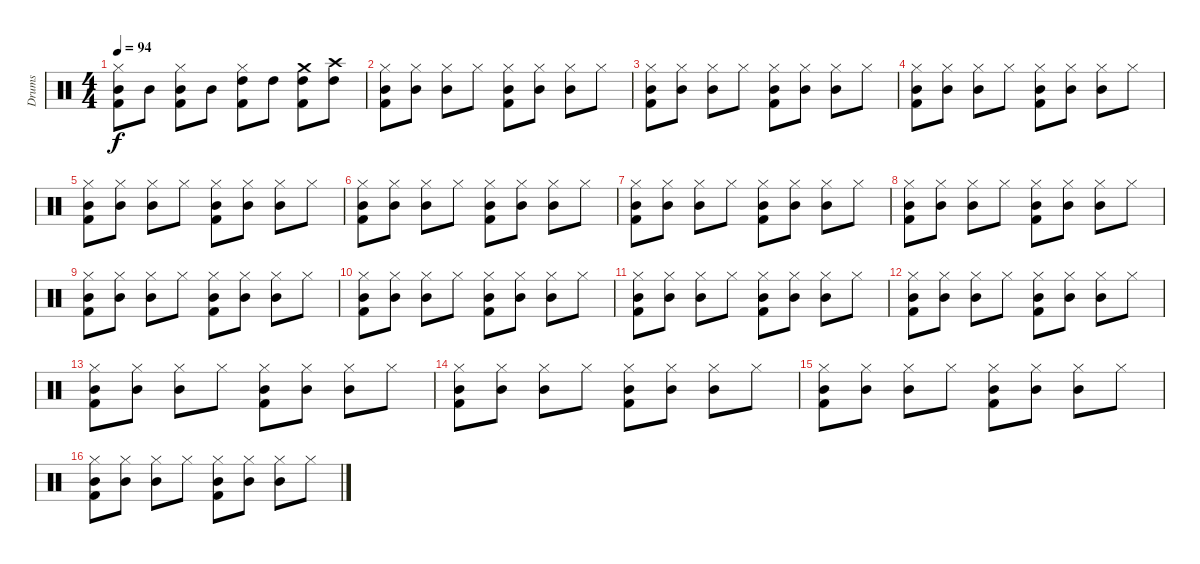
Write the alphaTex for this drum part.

\track ("Drums" "Drums") {instrument percussion}
\staff {score}
\articulation defaults
\ts (4 4)
\tempo 94
\clef neutral
\ks c
("Hi-Hat (closed)" "Mid Tom (hit)" "Kick (hit) 2").8{dy f} "Mid Tom (hit)".8 ("Hi-Hat (closed)" "Mid Tom (hit)" "Kick (hit) 2").8 "Mid Tom (hit)".8 ("Hi-Hat (closed)" "High Tom (hit)" "Kick (hit) 2").8 "High Tom (hit)".8 ("Crash medium (hit)" "High Tom (hit)" "Kick (hit) 2").8 ("Crash high (hit)" "High Tom (hit)").8 |
("Hi-Hat (closed)" "Mid Tom (hit)" "Kick (hit) 2").8 ("Hi-Hat (closed)" "Mid Tom (hit)").8 ("Hi-Hat (closed)" "Mid Tom (hit)").8 "Hi-Hat (closed)".8 ("Hi-Hat (closed)" "Mid Tom (hit)" "Kick (hit) 2").8 ("Hi-Hat (closed)" "Mid Tom (hit)").8 ("Hi-Hat (closed)" "Mid Tom (hit)").8 "Hi-Hat (closed)".8 |
("Hi-Hat (closed)" "Mid Tom (hit)" "Kick (hit) 2").8 ("Hi-Hat (closed)" "Mid Tom (hit)").8 ("Hi-Hat (closed)" "Mid Tom (hit)").8 "Hi-Hat (closed)".8 ("Hi-Hat (closed)" "Mid Tom (hit)" "Kick (hit) 2").8 ("Hi-Hat (closed)" "Mid Tom (hit)").8 ("Hi-Hat (closed)" "Mid Tom (hit)").8 "Hi-Hat (closed)".8 |
("Hi-Hat (closed)" "Mid Tom (hit)" "Kick (hit) 2").8 ("Hi-Hat (closed)" "Mid Tom (hit)").8 ("Hi-Hat (closed)" "Mid Tom (hit)").8 "Hi-Hat (closed)".8 ("Hi-Hat (closed)" "Mid Tom (hit)" "Kick (hit) 2").8 ("Hi-Hat (closed)" "Mid Tom (hit)").8 ("Hi-Hat (closed)" "Mid Tom (hit)").8 "Hi-Hat (closed)".8 |
("Hi-Hat (closed)" "Mid Tom (hit)" "Kick (hit) 2").8 ("Hi-Hat (closed)" "Mid Tom (hit)").8 ("Hi-Hat (closed)" "Mid Tom (hit)").8 "Hi-Hat (closed)".8 ("Hi-Hat (closed)" "Mid Tom (hit)" "Kick (hit) 2").8 ("Hi-Hat (closed)" "Mid Tom (hit)").8 ("Hi-Hat (closed)" "Mid Tom (hit)").8 "Hi-Hat (closed)".8 |
("Hi-Hat (closed)" "Mid Tom (hit)" "Kick (hit) 2").8 ("Hi-Hat (closed)" "Mid Tom (hit)").8 ("Hi-Hat (closed)" "Mid Tom (hit)").8 "Hi-Hat (closed)".8 ("Hi-Hat (closed)" "Mid Tom (hit)" "Kick (hit) 2").8 ("Hi-Hat (closed)" "Mid Tom (hit)").8 ("Hi-Hat (closed)" "Mid Tom (hit)").8 "Hi-Hat (closed)".8 |
("Hi-Hat (closed)" "Mid Tom (hit)" "Kick (hit) 2").8 ("Hi-Hat (closed)" "Mid Tom (hit)").8 ("Hi-Hat (closed)" "Mid Tom (hit)").8 "Hi-Hat (closed)".8 ("Hi-Hat (closed)" "Mid Tom (hit)" "Kick (hit) 2").8 ("Hi-Hat (closed)" "Mid Tom (hit)").8 ("Hi-Hat (closed)" "Mid Tom (hit)").8 "Hi-Hat (closed)".8 |
("Hi-Hat (closed)" "Mid Tom (hit)" "Kick (hit) 2").8 ("Hi-Hat (closed)" "Mid Tom (hit)").8 ("Hi-Hat (closed)" "Mid Tom (hit)").8 "Hi-Hat (closed)".8 ("Hi-Hat (closed)" "Mid Tom (hit)" "Kick (hit) 2").8 ("Hi-Hat (closed)" "Mid Tom (hit)").8 ("Hi-Hat (closed)" "Mid Tom (hit)").8 "Hi-Hat (closed)".8 |
("Hi-Hat (closed)" "Mid Tom (hit)" "Kick (hit) 2").8 ("Hi-Hat (closed)" "Mid Tom (hit)").8 ("Hi-Hat (closed)" "Mid Tom (hit)").8 "Hi-Hat (closed)".8 ("Hi-Hat (closed)" "Mid Tom (hit)" "Kick (hit) 2").8 ("Hi-Hat (closed)" "Mid Tom (hit)").8 ("Hi-Hat (closed)" "Mid Tom (hit)").8 "Hi-Hat (closed)".8 |
("Hi-Hat (closed)" "Mid Tom (hit)" "Kick (hit) 2").8 ("Hi-Hat (closed)" "Mid Tom (hit)").8 ("Hi-Hat (closed)" "Mid Tom (hit)").8 "Hi-Hat (closed)".8 ("Hi-Hat (closed)" "Mid Tom (hit)" "Kick (hit) 2").8 ("Hi-Hat (closed)" "Mid Tom (hit)").8 ("Hi-Hat (closed)" "Mid Tom (hit)").8 "Hi-Hat (closed)".8 |
("Hi-Hat (closed)" "Mid Tom (hit)" "Kick (hit) 2").8 ("Hi-Hat (closed)" "Mid Tom (hit)").8 ("Hi-Hat (closed)" "Mid Tom (hit)").8 "Hi-Hat (closed)".8 ("Hi-Hat (closed)" "Mid Tom (hit)" "Kick (hit) 2").8 ("Hi-Hat (closed)" "Mid Tom (hit)").8 ("Hi-Hat (closed)" "Mid Tom (hit)").8 "Hi-Hat (closed)".8 |
("Hi-Hat (closed)" "Mid Tom (hit)" "Kick (hit) 2").8 ("Hi-Hat (closed)" "Mid Tom (hit)").8 ("Hi-Hat (closed)" "Mid Tom (hit)").8 "Hi-Hat (closed)".8 ("Hi-Hat (closed)" "Mid Tom (hit)" "Kick (hit) 2").8 ("Hi-Hat (closed)" "Mid Tom (hit)").8 ("Hi-Hat (closed)" "Mid Tom (hit)").8 "Hi-Hat (closed)".8 |
("Hi-Hat (closed)" "Mid Tom (hit)" "Kick (hit) 2").8 ("Hi-Hat (closed)" "Mid Tom (hit)").8 ("Hi-Hat (closed)" "Mid Tom (hit)").8 "Hi-Hat (closed)".8 ("Hi-Hat (closed)" "Mid Tom (hit)" "Kick (hit) 2").8 ("Hi-Hat (closed)" "Mid Tom (hit)").8 ("Hi-Hat (closed)" "Mid Tom (hit)").8 "Hi-Hat (closed)".8 |
("Hi-Hat (closed)" "Mid Tom (hit)" "Kick (hit) 2").8 ("Hi-Hat (closed)" "Mid Tom (hit)").8 ("Hi-Hat (closed)" "Mid Tom (hit)").8 "Hi-Hat (closed)".8 ("Hi-Hat (closed)" "Mid Tom (hit)" "Kick (hit) 2").8 ("Hi-Hat (closed)" "Mid Tom (hit)").8 ("Hi-Hat (closed)" "Mid Tom (hit)").8 "Hi-Hat (closed)".8 |
("Hi-Hat (closed)" "Mid Tom (hit)" "Kick (hit) 2").8 ("Hi-Hat (closed)" "Mid Tom (hit)").8 ("Hi-Hat (closed)" "Mid Tom (hit)").8 "Hi-Hat (closed)".8 ("Hi-Hat (closed)" "Mid Tom (hit)" "Kick (hit) 2").8 ("Hi-Hat (closed)" "Mid Tom (hit)").8 ("Hi-Hat (closed)" "Mid Tom (hit)").8 "Hi-Hat (closed)".8 |
("Hi-Hat (closed)" "Mid Tom (hit)" "Kick (hit) 2").8 ("Hi-Hat (closed)" "Mid Tom (hit)").8 ("Hi-Hat (closed)" "Mid Tom (hit)").8 "Hi-Hat (closed)".8 ("Hi-Hat (closed)" "Mid Tom (hit)" "Kick (hit) 2").8 ("Hi-Hat (closed)" "Mid Tom (hit)").8 ("Hi-Hat (closed)" "Mid Tom (hit)").8 "Hi-Hat (closed)".8
